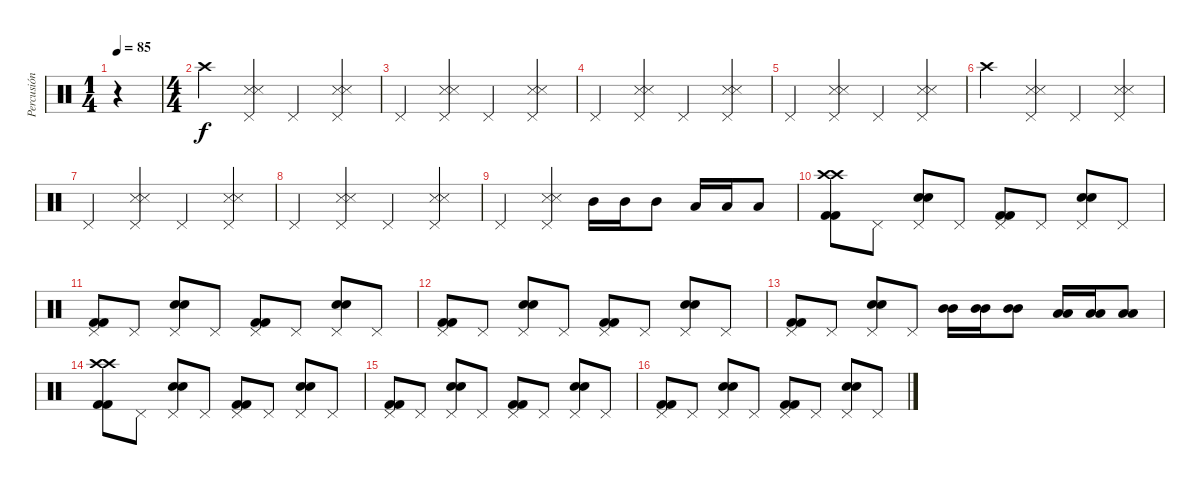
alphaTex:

\track ("Percusión" "Percusión") {instrument percussion}
\staff {score}
\articulation defaults
\ts (1 4)
\tempo 85
\clef neutral
\ks c
r.4{dy f} |
\ts (4 4)
"Crash high (hit)".4 ("Pedal Hi-Hat (hit)" "Snare (side stick) 3" "Snare (side stick) 3").4 "Pedal Hi-Hat (hit)".4 ("Pedal Hi-Hat (hit)" "Snare (side stick) 3" "Snare (side stick) 3").4 |
"Pedal Hi-Hat (hit)".4 ("Pedal Hi-Hat (hit)" "Snare (side stick) 3" "Snare (side stick) 3").4 "Pedal Hi-Hat (hit)".4 ("Pedal Hi-Hat (hit)" "Snare (side stick) 3" "Snare (side stick) 3").4 |
"Pedal Hi-Hat (hit)".4 ("Pedal Hi-Hat (hit)" "Snare (side stick) 3" "Snare (side stick) 3").4 "Pedal Hi-Hat (hit)".4 ("Pedal Hi-Hat (hit)" "Snare (side stick) 3" "Snare (side stick) 3").4 |
"Pedal Hi-Hat (hit)".4 ("Pedal Hi-Hat (hit)" "Snare (side stick) 3" "Snare (side stick) 3").4 "Pedal Hi-Hat (hit)".4 ("Pedal Hi-Hat (hit)" "Snare (side stick) 3" "Snare (side stick) 3").4 |
"Crash high (hit)".4 ("Pedal Hi-Hat (hit)" "Snare (side stick) 3" "Snare (side stick) 3").4 "Pedal Hi-Hat (hit)".4 ("Pedal Hi-Hat (hit)" "Snare (side stick) 3" "Snare (side stick) 3").4 |
"Pedal Hi-Hat (hit)".4 ("Pedal Hi-Hat (hit)" "Snare (side stick) 3" "Snare (side stick) 3").4 "Pedal Hi-Hat (hit)".4 ("Pedal Hi-Hat (hit)" "Snare (side stick) 3" "Snare (side stick) 3").4 |
"Pedal Hi-Hat (hit)".4 ("Pedal Hi-Hat (hit)" "Snare (side stick) 3" "Snare (side stick) 3").4 "Pedal Hi-Hat (hit)".4 ("Pedal Hi-Hat (hit)" "Snare (side stick) 3" "Snare (side stick) 3").4 |
"Pedal Hi-Hat (hit)".4 ("Pedal Hi-Hat (hit)" "Snare (side stick) 3" "Snare (side stick) 3").4 "Mid Tom (hit)".16 "Mid Tom (hit)".16 "Mid Tom (hit)".8 "Low Tom (hit)".16 "Low Tom (hit)".16 "Low Tom (hit)".8 |
("Kick (hit) 2" "Kick (hit) 2" "Crash high (hit)" "Crash high (hit)").8 "Pedal Hi-Hat (hit)".8 ("Electric Snare (hit)" "Electric Snare (hit)" "Pedal Hi-Hat (hit)").8 "Pedal Hi-Hat (hit)".8 ("Kick (hit) 2" "Kick (hit) 2" "Pedal Hi-Hat (hit)").8 "Pedal Hi-Hat (hit)".8 ("Electric Snare (hit)" "Electric Snare (hit)" "Pedal Hi-Hat (hit)").8 "Pedal Hi-Hat (hit)".8 |
("Kick (hit) 2" "Kick (hit) 2" "Pedal Hi-Hat (hit)").8 "Pedal Hi-Hat (hit)".8 ("Electric Snare (hit)" "Electric Snare (hit)" "Pedal Hi-Hat (hit)").8 "Pedal Hi-Hat (hit)".8 ("Kick (hit) 2" "Kick (hit) 2" "Pedal Hi-Hat (hit)").8 "Pedal Hi-Hat (hit)".8 ("Electric Snare (hit)" "Electric Snare (hit)" "Pedal Hi-Hat (hit)").8 "Pedal Hi-Hat (hit)".8 |
("Kick (hit) 2" "Kick (hit) 2" "Pedal Hi-Hat (hit)").8 "Pedal Hi-Hat (hit)".8 ("Electric Snare (hit)" "Electric Snare (hit)" "Pedal Hi-Hat (hit)").8 "Pedal Hi-Hat (hit)".8 ("Kick (hit) 2" "Kick (hit) 2" "Pedal Hi-Hat (hit)").8 "Pedal Hi-Hat (hit)".8 ("Electric Snare (hit)" "Electric Snare (hit)" "Pedal Hi-Hat (hit)").8 "Pedal Hi-Hat (hit)".8 |
("Kick (hit) 2" "Kick (hit) 2" "Pedal Hi-Hat (hit)").8 "Pedal Hi-Hat (hit)".8 ("Electric Snare (hit)" "Electric Snare (hit)" "Pedal Hi-Hat (hit)").8 "Pedal Hi-Hat (hit)".8 ("Mid Tom (hit)" "Mid Tom (hit)").16 ("Mid Tom (hit)" "Mid Tom (hit)").16 ("Mid Tom (hit)" "Mid Tom (hit)").8 ("Low Tom (hit)" "Low Tom (hit)").16 ("Low Tom (hit)" "Low Tom (hit)").16 ("Low Tom (hit)" "Low Tom (hit)").8 |
("Kick (hit) 2" "Kick (hit) 2" "Crash high (hit)" "Crash high (hit)").8 "Pedal Hi-Hat (hit)".8 ("Electric Snare (hit)" "Electric Snare (hit)" "Pedal Hi-Hat (hit)").8 "Pedal Hi-Hat (hit)".8 ("Kick (hit) 2" "Kick (hit) 2" "Pedal Hi-Hat (hit)").8 "Pedal Hi-Hat (hit)".8 ("Electric Snare (hit)" "Electric Snare (hit)" "Pedal Hi-Hat (hit)").8 "Pedal Hi-Hat (hit)".8 |
("Kick (hit) 2" "Kick (hit) 2" "Pedal Hi-Hat (hit)").8 "Pedal Hi-Hat (hit)".8 ("Electric Snare (hit)" "Electric Snare (hit)" "Pedal Hi-Hat (hit)").8 "Pedal Hi-Hat (hit)".8 ("Kick (hit) 2" "Kick (hit) 2" "Pedal Hi-Hat (hit)").8 "Pedal Hi-Hat (hit)".8 ("Electric Snare (hit)" "Electric Snare (hit)" "Pedal Hi-Hat (hit)").8 "Pedal Hi-Hat (hit)".8 |
("Kick (hit) 2" "Kick (hit) 2" "Pedal Hi-Hat (hit)").8 "Pedal Hi-Hat (hit)".8 ("Electric Snare (hit)" "Electric Snare (hit)" "Pedal Hi-Hat (hit)").8 "Pedal Hi-Hat (hit)".8 ("Kick (hit) 2" "Kick (hit) 2" "Pedal Hi-Hat (hit)").8 "Pedal Hi-Hat (hit)".8 ("Electric Snare (hit)" "Electric Snare (hit)" "Pedal Hi-Hat (hit)").8 "Pedal Hi-Hat (hit)".8
